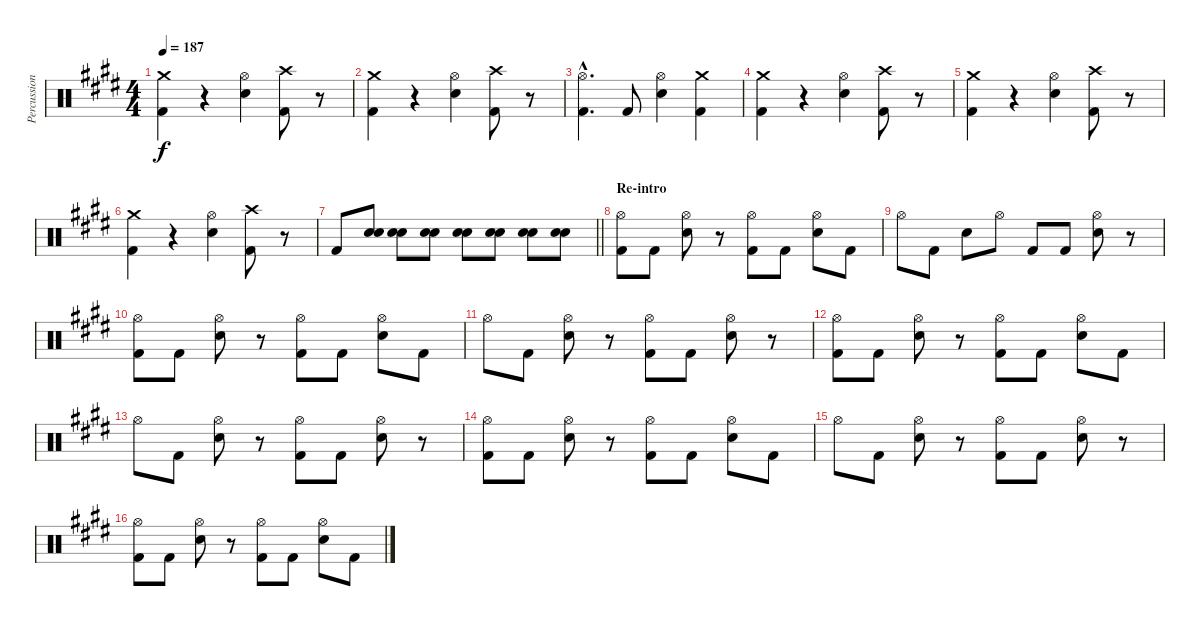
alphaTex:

\track ("Percussion" "Percussion") {instrument percussion}
\staff {score}
\articulation defaults
\ts (4 4)
\tempo 187
\clef neutral
\ks e
("Crash medium (hit)" "Kick (hit) 2").4{dy f} r.4 ("Hi-Hat (open)" "Snare (hit) 2").4 ("Crash high (hit)" "Kick (hit) 2").8 r.8 |
("Crash medium (hit)" "Kick (hit) 2").4 r.4 ("Hi-Hat (open)" "Snare (hit) 2").4 ("Crash high (hit)" "Kick (hit) 2").8 r.8 |
("Hi-Hat (open)"{hac} "Kick (hit) 2"{hac}).4{d} "Kick (hit) 2".8 ("Hi-Hat (open)" "Snare (hit) 2").4 ("Crash medium (hit)" "Kick (hit) 2").4 |
("Crash medium (hit)" "Kick (hit) 2").4 r.4 ("Hi-Hat (open)" "Snare (hit) 2").4 ("Crash high (hit)" "Kick (hit) 2").8 r.8 |
("Crash medium (hit)" "Kick (hit) 2").4 r.4 ("Hi-Hat (open)" "Snare (hit) 2").4 ("Crash high (hit)" "Kick (hit) 2").8 r.8 |
("Crash medium (hit)" "Kick (hit) 2").4 r.4 ("Hi-Hat (open)" "Snare (hit) 2").4 ("Crash high (hit)" "Kick (hit) 2").8 r.8 |
\barLineRight lightlight "Kick (hit) 2".8
("Snare (hit) 2" "Snare (hit) 2").8{volume 10} ("Snare (hit) 2" "Snare (hit) 2").8{volume 13} ("Snare (hit) 2" "Snare (hit) 2").8 ("Snare (hit) 2" "Snare (hit) 2").8 ("Snare (hit) 2" "Snare (hit) 2").8 ("Snare (hit) 2" "Snare (hit) 2").8 ("Snare (hit) 2" "Snare (hit) 2").8 |
\section ("" "Re-intro")
("Hi-Hat (open)" "Kick (hit) 2").8 "Kick (hit) 2".8 ("Hi-Hat (open)" "Snare (hit) 2").8 r.8 ("Hi-Hat (open)" "Kick (hit) 2").8 "Kick (hit) 2".8 ("Hi-Hat (open)" "Snare (hit) 2").8 "Kick (hit) 2".8 |
"Hi-Hat (open)".8 "Kick (hit) 2".8 "Snare (hit) 2".8 "Hi-Hat (open)".8 "Kick (hit) 2".8 "Kick (hit) 2".8 ("Hi-Hat (open)" "Snare (hit) 2").8 r.8 |
("Hi-Hat (open)" "Kick (hit) 2").8 "Kick (hit) 2".8 ("Hi-Hat (open)" "Snare (hit) 2").8 r.8 ("Hi-Hat (open)" "Kick (hit) 2").8 "Kick (hit) 2".8 ("Hi-Hat (open)" "Snare (hit) 2").8 "Kick (hit) 2".8 |
"Hi-Hat (open)".8 "Kick (hit) 2".8 ("Hi-Hat (open)" "Snare (hit) 2").8 r.8 ("Hi-Hat (open)" "Kick (hit) 2").8 "Kick (hit) 2".8 ("Hi-Hat (open)" "Snare (hit) 2").8 r.8 |
("Hi-Hat (open)" "Kick (hit) 2").8 "Kick (hit) 2".8 ("Hi-Hat (open)" "Snare (hit) 2").8 r.8 ("Hi-Hat (open)" "Kick (hit) 2").8 "Kick (hit) 2".8 ("Hi-Hat (open)" "Snare (hit) 2").8 "Kick (hit) 2".8 |
"Hi-Hat (open)".8 "Kick (hit) 2".8 ("Hi-Hat (open)" "Snare (hit) 2").8 r.8 ("Hi-Hat (open)" "Kick (hit) 2").8 "Kick (hit) 2".8 ("Hi-Hat (open)" "Snare (hit) 2").8 r.8 |
("Hi-Hat (open)" "Kick (hit) 2").8 "Kick (hit) 2".8 ("Hi-Hat (open)" "Snare (hit) 2").8 r.8 ("Hi-Hat (open)" "Kick (hit) 2").8 "Kick (hit) 2".8 ("Hi-Hat (open)" "Snare (hit) 2").8 "Kick (hit) 2".8 |
"Hi-Hat (open)".8 "Kick (hit) 2".8 ("Hi-Hat (open)" "Snare (hit) 2").8 r.8 ("Hi-Hat (open)" "Kick (hit) 2").8 "Kick (hit) 2".8 ("Hi-Hat (open)" "Snare (hit) 2").8 r.8 |
("Hi-Hat (open)" "Kick (hit) 2").8 "Kick (hit) 2".8 ("Hi-Hat (open)" "Snare (hit) 2").8 r.8 ("Hi-Hat (open)" "Kick (hit) 2").8 "Kick (hit) 2".8 ("Hi-Hat (open)" "Snare (hit) 2").8 "Kick (hit) 2".8
